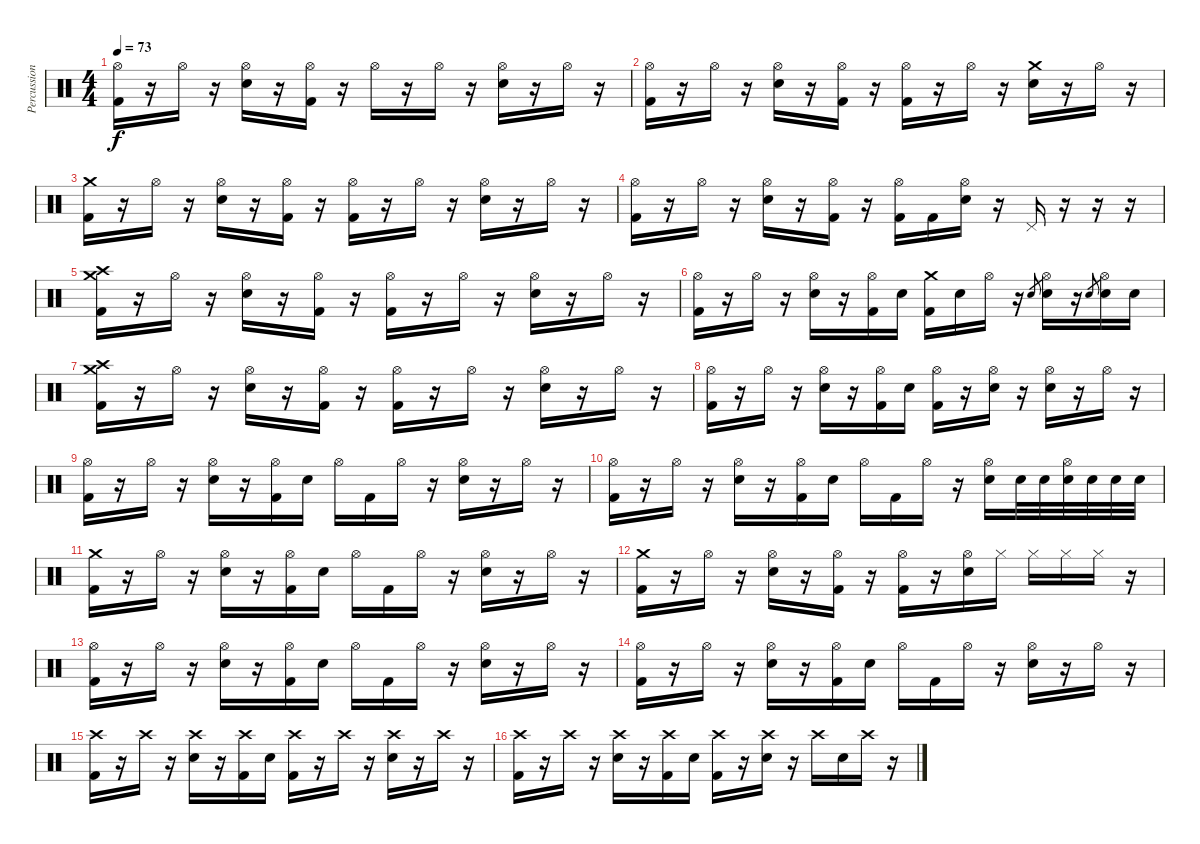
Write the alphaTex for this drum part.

\track ("Percussion" "Percussion") {instrument percussion}
\staff {score}
\articulation defaults
\ts (4 4)
\tempo 73
\clef neutral
\ks c
("Hi-Hat (open)" "Kick (hit) 2").16{dy f} r.16 "Hi-Hat (open)".16 r.16 ("Hi-Hat (open)" "Snare (hit) 2").16 r.16 ("Hi-Hat (open)" "Kick (hit) 2").16 r.16 "Hi-Hat (open)".16 r.16 "Hi-Hat (open)".16 r.16 ("Hi-Hat (open)" "Snare (hit) 2").16 r.16 "Hi-Hat (open)".16 r.16 |
("Hi-Hat (open)" "Kick (hit) 2").16 r.16 "Hi-Hat (open)".16 r.16 ("Hi-Hat (open)" "Snare (hit) 2").16 r.16 ("Hi-Hat (open)" "Kick (hit) 2").16 r.16 ("Hi-Hat (open)" "Kick (hit) 2").16 r.16 "Hi-Hat (open)".16 r.16 ("Crash medium (hit)" "Snare (hit) 2").16 r.16 "Hi-Hat (open)".16 r.16 |
("Crash medium (hit)" "Kick (hit) 2").16 r.16 "Hi-Hat (open)".16 r.16 ("Hi-Hat (open)" "Snare (hit) 2").16 r.16 ("Hi-Hat (open)" "Kick (hit) 2").16 r.16 ("Hi-Hat (open)" "Kick (hit) 2").16 r.16 "Hi-Hat (open)".16 r.16 ("Hi-Hat (open)" "Snare (hit) 2").16 r.16 "Hi-Hat (open)".16 r.16 |
("Hi-Hat (open)" "Kick (hit) 2").16 r.16 "Hi-Hat (open)".16 r.16 ("Hi-Hat (open)" "Snare (hit) 2").16 r.16 ("Hi-Hat (open)" "Kick (hit) 2").16 r.16 ("Hi-Hat (open)" "Kick (hit) 2").16 "Kick (hit) 2".16 ("Hi-Hat (open)" "Snare (hit) 2").16 r.16 "Pedal Hi-Hat (hit)".16 r.16 r.16 r.16 |
("Crash high (hit)" "Crash medium (hit)" "Kick (hit) 2").16 r.16 "Hi-Hat (open)".16 r.16 ("Hi-Hat (open)" "Snare (hit) 2").16 r.16 ("Hi-Hat (open)" "Kick (hit) 2").16 r.16 ("Hi-Hat (open)" "Kick (hit) 2").16 r.16 "Hi-Hat (open)".16 r.16 ("Hi-Hat (open)" "Snare (hit) 2").16 r.16 "Hi-Hat (open)".16 r.16 |
("Hi-Hat (open)" "Kick (hit) 2").16 r.16 "Hi-Hat (open)".16 r.16 ("Hi-Hat (open)" "Snare (hit) 2").16 r.16 ("Hi-Hat (open)" "Kick (hit) 2").16 "Snare (hit) 2".16 ("Crash medium (hit)" "Kick (hit) 2").16 "Snare (hit) 2".16 "Hi-Hat (open)".16 r.16 "Snare (hit) 2".8{gr} ("Hi-Hat (open)" "Snare (hit) 2").16 r.16 "Snare (hit) 2".8{gr} ("Hi-Hat (open)" "Snare (hit) 2").16 "Snare (hit) 2".16 |
("Crash high (hit)" "Crash medium (hit)" "Kick (hit) 2").16 r.16 "Hi-Hat (open)".16 r.16 ("Hi-Hat (open)" "Snare (hit) 2").16 r.16 ("Hi-Hat (open)" "Kick (hit) 2").16 r.16 ("Hi-Hat (open)" "Kick (hit) 2").16 r.16 "Hi-Hat (open)".16 r.16 ("Hi-Hat (open)" "Snare (hit) 2").16 r.16 "Hi-Hat (open)".16 r.16 |
("Hi-Hat (open)" "Kick (hit) 2").16 r.16 "Hi-Hat (open)".16 r.16 ("Hi-Hat (open)" "Snare (hit) 2").16 r.16 ("Hi-Hat (open)" "Kick (hit) 2").16 "Snare (hit) 2".16 ("Hi-Hat (open)" "Kick (hit) 2").16 r.16 ("Hi-Hat (open)" "Snare (hit) 2").16 r.16 ("Hi-Hat (open)" "Snare (hit) 2").16 r.16 "Hi-Hat (open)".16 r.16 |
("Hi-Hat (open)" "Kick (hit) 2").16 r.16 "Hi-Hat (open)".16 r.16 ("Hi-Hat (open)" "Snare (hit) 2").16 r.16 ("Hi-Hat (open)" "Kick (hit) 2").16 "Snare (hit) 2".16 "Hi-Hat (open)".16 "Kick (hit) 2".16 "Hi-Hat (open)".16 r.16 ("Hi-Hat (open)" "Snare (hit) 2").16 r.16 "Hi-Hat (open)".16 r.16 |
("Hi-Hat (open)" "Kick (hit) 2").16 r.16 "Hi-Hat (open)".16 r.16 ("Hi-Hat (open)" "Snare (hit) 2").16 r.16 ("Hi-Hat (open)" "Kick (hit) 2").16 "Snare (hit) 2".16 "Hi-Hat (open)".16 "Kick (hit) 2".16 "Hi-Hat (open)".16 r.16 ("Hi-Hat (open)" "Snare (hit) 2").16 "Snare (hit) 2".32 "Snare (hit) 2".32 ("Hi-Hat (open)" "Snare (hit) 2").32 "Snare (hit) 2".32 "Snare (hit) 2".32 "Snare (hit) 2".32 |
("Crash medium (hit)" "Kick (hit) 2").16 r.16 "Hi-Hat (open)".16 r.16 ("Hi-Hat (open)" "Snare (hit) 2").16 r.16 ("Hi-Hat (open)" "Kick (hit) 2").16 "Snare (hit) 2".16 "Hi-Hat (open)".16 "Kick (hit) 2".16 "Hi-Hat (open)".16 r.16 ("Hi-Hat (open)" "Snare (hit) 2").16 r.16 "Hi-Hat (open)".16 r.16 |
("Crash medium (hit)" "Kick (hit) 2").16 r.16 "Hi-Hat (open)".16 r.16 ("Hi-Hat (open)" "Snare (hit) 2").16 r.16 ("Hi-Hat (open)" "Kick (hit) 2").16 r.16 ("Hi-Hat (open)" "Kick (hit) 2").16 r.16 ("Hi-Hat (open)" "Snare (hit) 2").16 "Hi-Hat (closed)".16 "Hi-Hat (closed)".16 "Hi-Hat (closed)".16 "Hi-Hat (closed)".16 r.16 |
("Hi-Hat (open)" "Kick (hit) 2").16 r.16 "Hi-Hat (open)".16 r.16 ("Hi-Hat (open)" "Snare (hit) 2").16 r.16 ("Hi-Hat (open)" "Kick (hit) 2").16 "Snare (hit) 2".16 "Hi-Hat (open)".16 "Kick (hit) 2".16 "Hi-Hat (open)".16 r.16 ("Hi-Hat (open)" "Snare (hit) 2").16 r.16 "Hi-Hat (open)".16 r.16 |
("Hi-Hat (open)" "Kick (hit) 2").16 r.16 "Hi-Hat (open)".16 r.16 ("Hi-Hat (open)" "Snare (hit) 2").16 r.16 ("Hi-Hat (open)" "Kick (hit) 2").16 "Snare (hit) 2".16 "Hi-Hat (open)".16 "Kick (hit) 2".16 "Hi-Hat (open)".16 r.16 ("Hi-Hat (open)" "Snare (hit) 2").16 r.16 "Hi-Hat (open)".16 r.16 |
("Crash high (hit)" "Kick (hit) 2").16 r.16 "Crash high (hit)".16 r.16 ("Crash high (hit)" "Snare (hit) 2").16 r.16 ("Crash high (hit)" "Kick (hit) 2").16 "Snare (hit) 2".16 ("Crash high (hit)" "Kick (hit) 2").16 r.16 "Crash high (hit)".16 r.16 ("Crash high (hit)" "Snare (hit) 2").16 r.16 "Crash high (hit)".16 r.16 |
("Crash high (hit)" "Kick (hit) 2").16 r.16 "Crash high (hit)".16 r.16 ("Crash high (hit)" "Snare (hit) 2").16 r.16 ("Crash high (hit)" "Kick (hit) 2").16 "Snare (hit) 2".16 ("Crash high (hit)" "Kick (hit) 2").16 r.16 ("Crash high (hit)" "Snare (hit) 2").16 r.16 "Crash high (hit)".16 "Snare (hit) 2".16 "Crash high (hit)".16 r.16
